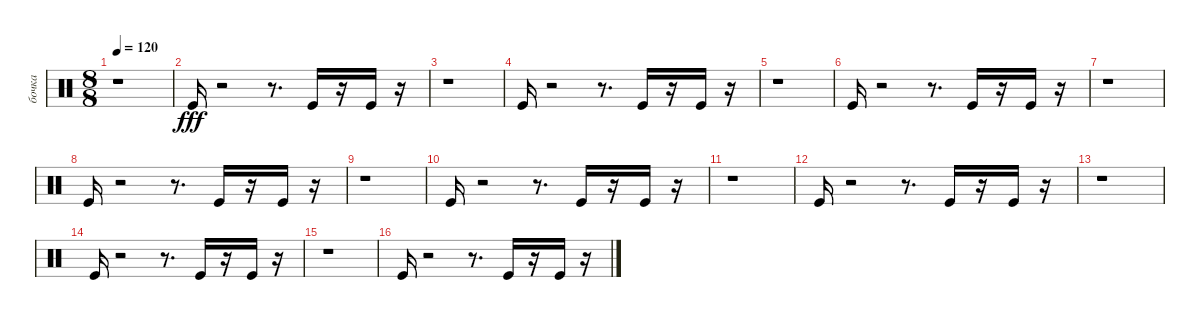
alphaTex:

\track ("бочка" "бочка") {instrument percussion}
\staff {score}
\articulation defaults
\ts (8 8)
\tempo 120
\clef neutral
\ks c
r.1{dy fff} |
"Kick (hit)".16 r.2 r.8{d} "Kick (hit)".16 r.16 "Kick (hit)".16 r.16 |
r.1 |
"Kick (hit)".16 r.2 r.8{d} "Kick (hit)".16 r.16 "Kick (hit)".16 r.16 |
r.1 |
"Kick (hit)".16 r.2 r.8{d} "Kick (hit)".16 r.16 "Kick (hit)".16 r.16 |
r.1 |
"Kick (hit)".16 r.2 r.8{d} "Kick (hit)".16 r.16 "Kick (hit)".16 r.16 |
r.1 |
"Kick (hit)".16 r.2 r.8{d} "Kick (hit)".16 r.16 "Kick (hit)".16 r.16 |
r.1 |
"Kick (hit)".16 r.2 r.8{d} "Kick (hit)".16 r.16 "Kick (hit)".16 r.16 |
r.1 |
"Kick (hit)".16 r.2 r.8{d} "Kick (hit)".16 r.16 "Kick (hit)".16 r.16 |
r.1 |
"Kick (hit)".16 r.2 r.8{d} "Kick (hit)".16 r.16 "Kick (hit)".16 r.16
